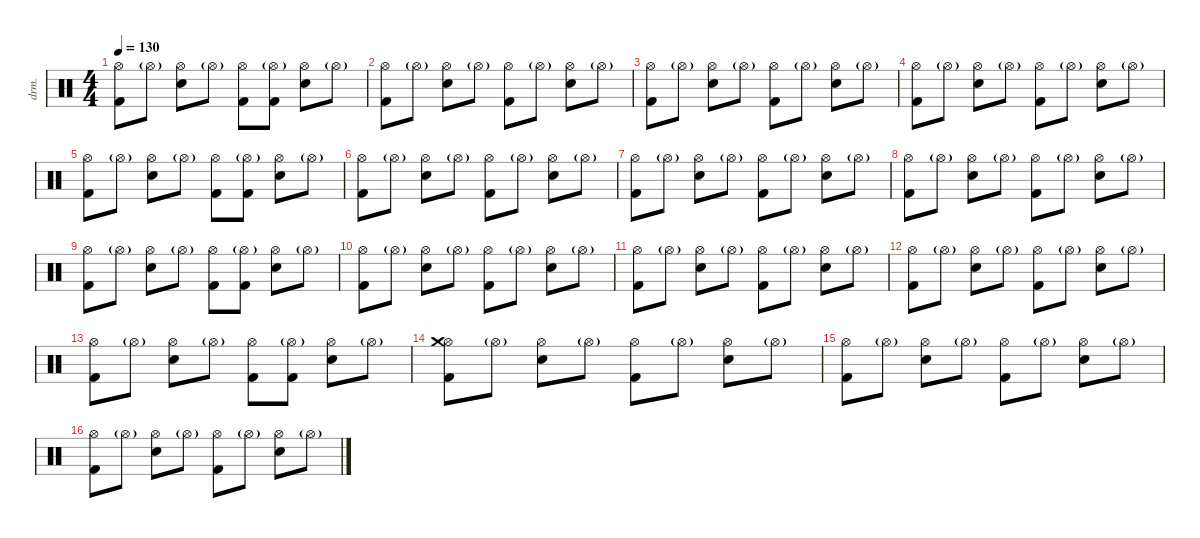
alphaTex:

\defaultSystemsLayout 4
\hideDynamics
\bracketExtendMode nobrackets
\otherSystemsTrackNameOrientation horizontal
\track ("Percussion" "drm.") {instrument percussion}
\staff {score}
\articulation defaults
\ts (4 4)
\tempo 130
\clef neutral
\ks c
("Hi-Hat (open)" "Kick (hit) 2").8{dy f} "Hi-Hat (open)"{g}.8 ("Hi-Hat (open)" "Snare (hit) 2").8 "Hi-Hat (open)"{g}.8 ("Hi-Hat (open)" "Kick (hit) 2").8 ("Hi-Hat (open)"{g} "Kick (hit) 2").8 ("Hi-Hat (open)" "Snare (hit) 2").8 "Hi-Hat (open)"{g}.8 |
("Hi-Hat (open)" "Kick (hit) 2").8 "Hi-Hat (open)"{g}.8 ("Hi-Hat (open)" "Snare (hit) 2").8 "Hi-Hat (open)"{g}.8 ("Hi-Hat (open)" "Kick (hit) 2").8 "Hi-Hat (open)"{g}.8 ("Hi-Hat (open)" "Snare (hit) 2").8 "Hi-Hat (open)"{g}.8 |
("Hi-Hat (open)" "Kick (hit) 2").8 "Hi-Hat (open)"{g}.8 ("Hi-Hat (open)" "Snare (hit) 2").8 "Hi-Hat (open)"{g}.8 ("Hi-Hat (open)" "Kick (hit) 2").8 "Hi-Hat (open)"{g}.8 ("Hi-Hat (open)" "Snare (hit) 2").8 "Hi-Hat (open)"{g}.8 |
("Hi-Hat (open)" "Kick (hit) 2").8 "Hi-Hat (open)"{g}.8 ("Hi-Hat (open)" "Snare (hit) 2").8 "Hi-Hat (open)"{g}.8 ("Hi-Hat (open)" "Kick (hit) 2").8 "Hi-Hat (open)"{g}.8 ("Hi-Hat (open)" "Snare (hit) 2").8 "Hi-Hat (open)"{g}.8 |
("Hi-Hat (open)" "Kick (hit) 2").8 "Hi-Hat (open)"{g}.8 ("Hi-Hat (open)" "Snare (hit) 2").8 "Hi-Hat (open)"{g}.8 ("Hi-Hat (open)" "Kick (hit) 2").8 ("Hi-Hat (open)"{g} "Kick (hit) 2").8 ("Hi-Hat (open)" "Snare (hit) 2").8 "Hi-Hat (open)"{g}.8 |
("Hi-Hat (open)" "Kick (hit) 2").8 "Hi-Hat (open)"{g}.8 ("Hi-Hat (open)" "Snare (hit) 2").8 "Hi-Hat (open)"{g}.8 ("Hi-Hat (open)" "Kick (hit) 2").8 "Hi-Hat (open)"{g}.8 ("Hi-Hat (open)" "Snare (hit) 2").8 "Hi-Hat (open)"{g}.8 |
("Hi-Hat (open)" "Kick (hit) 2").8 "Hi-Hat (open)"{g}.8 ("Hi-Hat (open)" "Snare (hit) 2").8 "Hi-Hat (open)"{g}.8 ("Hi-Hat (open)" "Kick (hit) 2").8 "Hi-Hat (open)"{g}.8 ("Hi-Hat (open)" "Snare (hit) 2").8 "Hi-Hat (open)"{g}.8 |
("Hi-Hat (open)" "Kick (hit) 2").8 "Hi-Hat (open)"{g}.8 ("Hi-Hat (open)" "Snare (hit) 2").8 "Hi-Hat (open)"{g}.8 ("Hi-Hat (open)" "Kick (hit) 2").8 "Hi-Hat (open)"{g}.8 ("Hi-Hat (open)" "Snare (hit) 2").8 "Hi-Hat (open)"{g}.8 |
("Hi-Hat (open)" "Kick (hit) 2").8 "Hi-Hat (open)"{g}.8 ("Hi-Hat (open)" "Snare (hit) 2").8 "Hi-Hat (open)"{g}.8 ("Hi-Hat (open)" "Kick (hit) 2").8 ("Hi-Hat (open)"{g} "Kick (hit) 2").8 ("Hi-Hat (open)" "Snare (hit) 2").8 "Hi-Hat (open)"{g}.8 |
("Hi-Hat (open)" "Kick (hit) 2").8 "Hi-Hat (open)"{g}.8 ("Hi-Hat (open)" "Snare (hit) 2").8 "Hi-Hat (open)"{g}.8 ("Hi-Hat (open)" "Kick (hit) 2").8 "Hi-Hat (open)"{g}.8 ("Hi-Hat (open)" "Snare (hit) 2").8 "Hi-Hat (open)"{g}.8 |
("Hi-Hat (open)" "Kick (hit) 2").8 "Hi-Hat (open)"{g}.8 ("Hi-Hat (open)" "Snare (hit) 2").8 "Hi-Hat (open)"{g}.8 ("Hi-Hat (open)" "Kick (hit) 2").8 "Hi-Hat (open)"{g}.8 ("Hi-Hat (open)" "Snare (hit) 2").8 "Hi-Hat (open)"{g}.8 |
("Hi-Hat (open)" "Kick (hit) 2").8 "Hi-Hat (open)"{g}.8 ("Hi-Hat (open)" "Snare (hit) 2").8 "Hi-Hat (open)"{g}.8 ("Hi-Hat (open)" "Kick (hit) 2").8 "Hi-Hat (open)"{g}.8 ("Hi-Hat (open)" "Snare (hit) 2").8 "Hi-Hat (open)"{g}.8 |
("Hi-Hat (open)" "Kick (hit) 2").8 "Hi-Hat (open)"{g}.8 ("Hi-Hat (open)" "Snare (hit) 2").8 "Hi-Hat (open)"{g}.8 ("Hi-Hat (open)" "Kick (hit) 2").8 ("Hi-Hat (open)"{g} "Kick (hit) 2").8 ("Hi-Hat (open)" "Snare (hit) 2").8 "Hi-Hat (open)"{g}.8 |
("Hi-Hat (open)" "Crash medium (hit)" "Kick (hit) 2").8 "Hi-Hat (open)"{g}.8 ("Hi-Hat (open)" "Snare (hit) 2").8 "Hi-Hat (open)"{g}.8 ("Hi-Hat (open)" "Kick (hit) 2").8 "Hi-Hat (open)"{g}.8 ("Hi-Hat (open)" "Snare (hit) 2").8 "Hi-Hat (open)"{g}.8 |
("Hi-Hat (open)" "Kick (hit) 2").8 "Hi-Hat (open)"{g}.8 ("Hi-Hat (open)" "Snare (hit) 2").8 "Hi-Hat (open)"{g}.8 ("Hi-Hat (open)" "Kick (hit) 2").8 "Hi-Hat (open)"{g}.8 ("Hi-Hat (open)" "Snare (hit) 2").8 "Hi-Hat (open)"{g}.8 |
("Hi-Hat (open)" "Kick (hit) 2").8 "Hi-Hat (open)"{g}.8 ("Hi-Hat (open)" "Snare (hit) 2").8 "Hi-Hat (open)"{g}.8 ("Hi-Hat (open)" "Kick (hit) 2").8 "Hi-Hat (open)"{g}.8 ("Hi-Hat (open)" "Snare (hit) 2").8 "Hi-Hat (open)"{g}.8
